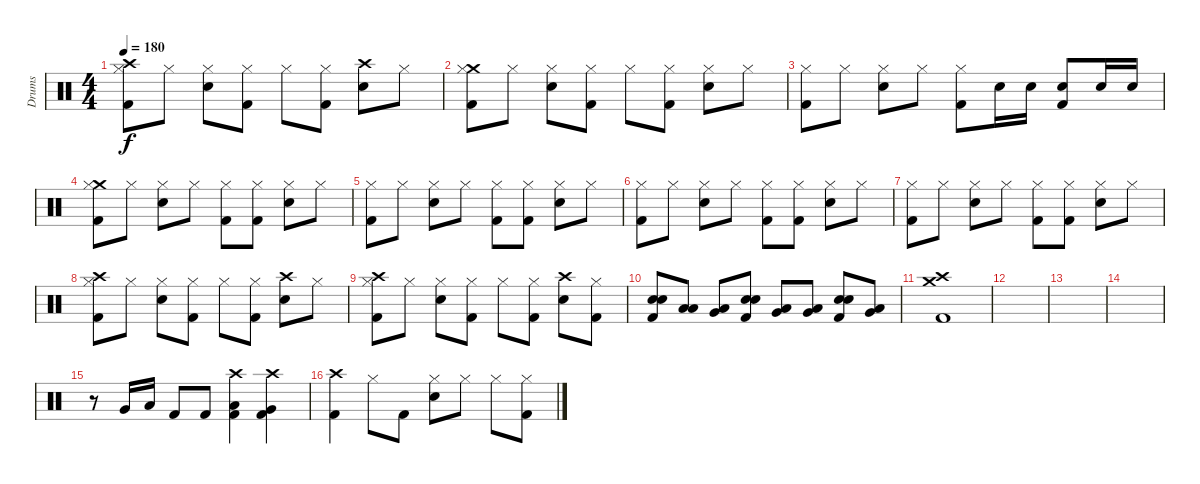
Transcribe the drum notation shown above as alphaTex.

\track ("Drums" "Drums") {instrument percussion}
\staff {score}
\articulation defaults
\ts (4 4)
\tempo 180
\clef neutral
\ks c
("Crash high (hit)" "Hi-Hat (closed)" "Kick (hit) 2").8{dy f} "Hi-Hat (closed)".8 ("Hi-Hat (closed)" "Electric Snare (hit)").8 ("Hi-Hat (closed)" "Kick (hit) 2").8 "Hi-Hat (closed)".8 ("Hi-Hat (closed)" "Kick (hit) 2").8 ("Crash high (hit)" "Electric Snare (hit)").8 "Hi-Hat (closed)".8 |
("Crash medium (hit)" "Hi-Hat (closed)" "Kick (hit) 2").8 "Hi-Hat (closed)".8 ("Hi-Hat (closed)" "Electric Snare (hit)").8 ("Hi-Hat (closed)" "Kick (hit) 2").8 "Hi-Hat (closed)".8 ("Hi-Hat (closed)" "Kick (hit) 2").8 ("Hi-Hat (closed)" "Electric Snare (hit)").8 "Hi-Hat (closed)".8 |
("Hi-Hat (closed)" "Kick (hit) 2").8 "Hi-Hat (closed)".8 ("Hi-Hat (closed)" "Electric Snare (hit)").8 "Hi-Hat (closed)".8 ("Hi-Hat (closed)" "Kick (hit) 2").8 "Electric Snare (hit)".16 "Electric Snare (hit)".16 ("Electric Snare (hit)" "Kick (hit) 2").8 "Electric Snare (hit)".16 "Electric Snare (hit)".16 |
("Crash medium (hit)" "Hi-Hat (closed)" "Kick (hit) 2").8 "Hi-Hat (closed)".8 ("Hi-Hat (closed)" "Electric Snare (hit)").8 "Hi-Hat (closed)".8 ("Hi-Hat (closed)" "Kick (hit) 2").8 ("Hi-Hat (closed)" "Kick (hit) 2").8 ("Hi-Hat (closed)" "Electric Snare (hit)").8 "Hi-Hat (closed)".8 |
("Hi-Hat (closed)" "Kick (hit) 2").8 "Hi-Hat (closed)".8 ("Hi-Hat (closed)" "Electric Snare (hit)").8 "Hi-Hat (closed)".8 ("Hi-Hat (closed)" "Kick (hit) 2").8 ("Hi-Hat (closed)" "Kick (hit) 2").8 ("Hi-Hat (closed)" "Electric Snare (hit)").8 "Hi-Hat (closed)".8 |
("Hi-Hat (closed)" "Kick (hit) 2").8 "Hi-Hat (closed)".8 ("Hi-Hat (closed)" "Electric Snare (hit)").8 "Hi-Hat (closed)".8 ("Hi-Hat (closed)" "Kick (hit) 2").8 ("Hi-Hat (closed)" "Kick (hit) 2").8 ("Hi-Hat (closed)" "Electric Snare (hit)").8 "Hi-Hat (closed)".8 |
("Hi-Hat (closed)" "Kick (hit) 2").8 "Hi-Hat (closed)".8 ("Hi-Hat (closed)" "Electric Snare (hit)").8 "Hi-Hat (closed)".8 ("Hi-Hat (closed)" "Kick (hit) 2").8 ("Hi-Hat (closed)" "Kick (hit) 2").8 ("Hi-Hat (closed)" "Electric Snare (hit)").8 "Hi-Hat (closed)".8 |
("Crash high (hit)" "Hi-Hat (closed)" "Kick (hit) 2").8 "Hi-Hat (closed)".8 ("Hi-Hat (closed)" "Electric Snare (hit)").8 ("Hi-Hat (closed)" "Kick (hit) 2").8 "Hi-Hat (closed)".8 ("Hi-Hat (closed)" "Kick (hit) 2").8 ("Crash high (hit)" "Electric Snare (hit)").8 "Hi-Hat (closed)".8 |
("Crash high (hit)" "Hi-Hat (closed)" "Kick (hit) 2").8 "Hi-Hat (closed)".8 ("Hi-Hat (closed)" "Electric Snare (hit)").8 ("Hi-Hat (closed)" "Kick (hit) 2").8 "Hi-Hat (closed)".8 ("Hi-Hat (closed)" "Kick (hit) 2").8 ("Crash high (hit)" "Electric Snare (hit)").8 ("Hi-Hat (closed)" "Kick (hit) 2").8 |
("Electric Snare (hit)" "Electric Snare (hit)" "Kick (hit) 2").8 ("Low Tom (hit)" "Low Tom (hit)").8 ("Very Low Tom (hit)" "Low Floor Tom (hit)").8 ("Electric Snare (hit)" "Electric Snare (hit)" "Kick (hit) 2").8 ("Low Tom (hit)" "Very Low Tom (hit)").8 ("Very Low Tom (hit)" "Low Floor Tom (hit)").8 ("Electric Snare (hit)" "Electric Snare (hit)" "Kick (hit) 2").8 ("Low Tom (hit)" "Very Low Tom (hit)").8 |
("Crash medium (hit)" "Crash high (hit)" "Kick (hit) 2").1 |
\section ("" "")
|
|
|
r.8 "Very Low Tom (hit)".16 "Low Floor Tom (hit)".16 "Kick (hit) 2".8 "Kick (hit) 2".8 ("Crash high (hit)" "Low Tom (hit)" "Kick (hit) 2").4 ("Crash high (hit)" "Very Low Tom (hit)" "Kick (hit) 2").4 |
("Crash high (hit)" "Kick (hit) 2").4 "Hi-Hat (closed)".8 "Kick (hit) 2".8 ("Hi-Hat (closed)" "Electric Snare (hit)").8 "Hi-Hat (closed)".8 "Hi-Hat (closed)".8 ("Hi-Hat (closed)" "Kick (hit) 2").8
